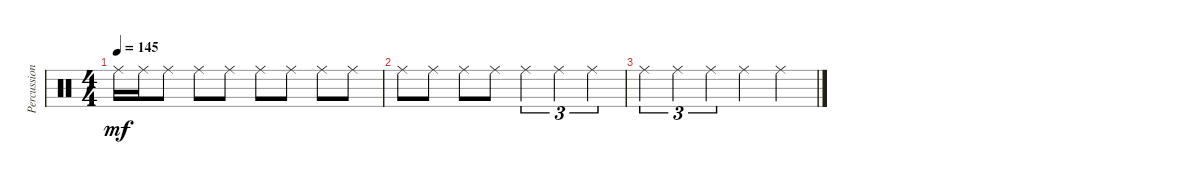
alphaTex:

\track ("Percussion" "Percussion") {instrument percussion}
\staff {score}
\articulation defaults
\ts (4 4)
\tempo 145
\clef neutral
\ks c "Ride (middle)".16{dy mf} "Ride (middle)".16 "Ride (middle)".8 "Ride (middle)".8 "Ride (middle)".8 "Ride (middle)".8 "Ride (middle)".8 "Ride (middle)".8 "Ride (middle)".8
|
"Ride (middle)".8 "Ride (middle)".8 "Ride (middle)".8 "Ride (middle)".8 "Ride (middle)".4{tu (3 2)} "Ride (middle)".4{tu (3 2)} "Ride (middle)".4{tu (3 2)} |
"Ride (middle)".4{tu (3 2)} "Ride (middle)".4{tu (3 2)} "Ride (middle)".4{tu (3 2)} "Ride (middle)".4 "Ride (middle)".4
